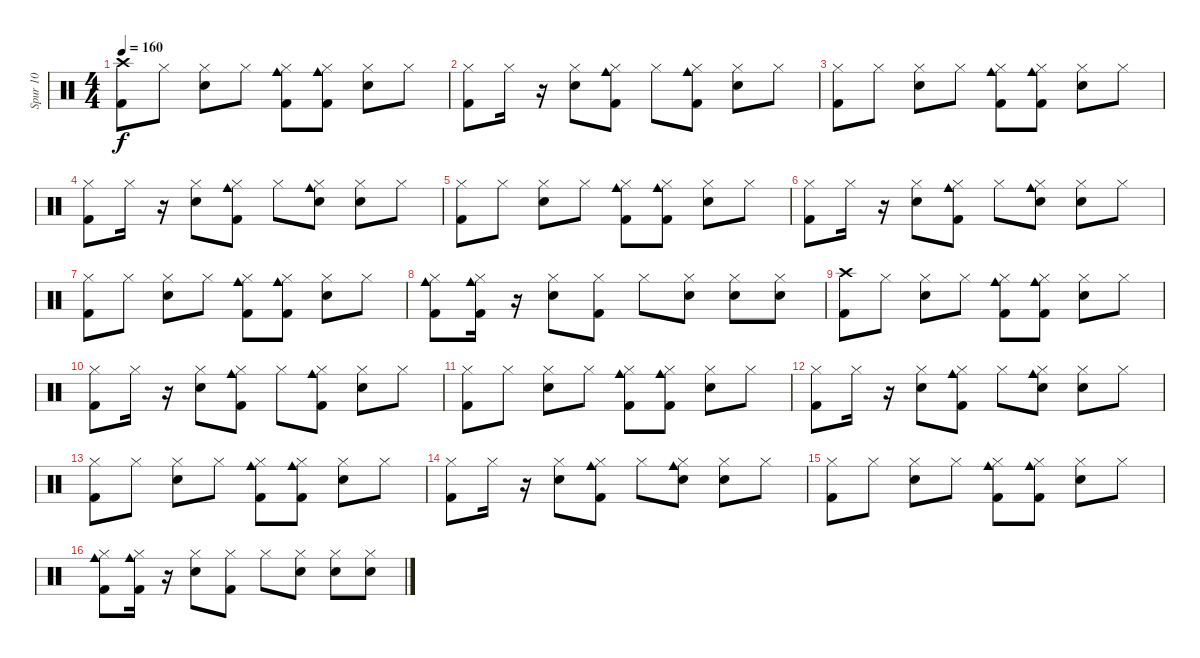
\track ("Spur 10" "Spur 10") {instrument percussion}
\staff {score}
\articulation defaults
\ts (4 4)
\tempo 160
\clef neutral
\ks c
("Crash high (hit)" "Kick (hit) 2").8{dy f} "Hi-Hat (closed)".8 ("Hi-Hat (closed)" "Snare (hit) 2").8 "Hi-Hat (closed)".8 ("Hi-Hat (closed)" "Cowbell medium (hit)" "Kick (hit) 2").8 ("Hi-Hat (closed)" "Cowbell medium (hit)" "Kick (hit) 2").8 ("Hi-Hat (closed)" "Snare (hit) 2").8 "Hi-Hat (closed)".8 |
("Hi-Hat (closed)" "Kick (hit) 2").8 "Hi-Hat (closed)".16 r.16 ("Hi-Hat (closed)" "Snare (hit) 2").8 ("Hi-Hat (closed)" "Kick (hit) 2" "Cowbell medium (hit)").8 "Hi-Hat (closed)".8 ("Hi-Hat (closed)" "Kick (hit) 2" "Cowbell medium (hit)").8 ("Hi-Hat (closed)" "Snare (hit) 2").8 "Hi-Hat (closed)".8 |
("Hi-Hat (closed)" "Kick (hit) 2").8 "Hi-Hat (closed)".8 ("Hi-Hat (closed)" "Snare (hit) 2").8 "Hi-Hat (closed)".8 ("Hi-Hat (closed)" "Cowbell medium (hit)" "Kick (hit) 2").8 ("Hi-Hat (closed)" "Cowbell medium (hit)" "Kick (hit) 2").8 ("Hi-Hat (closed)" "Snare (hit) 2").8 "Hi-Hat (closed)".8 |
("Hi-Hat (closed)" "Kick (hit) 2").8 "Hi-Hat (closed)".16 r.16 ("Hi-Hat (closed)" "Snare (hit) 2").8 ("Hi-Hat (closed)" "Kick (hit) 2" "Cowbell medium (hit)").8 "Hi-Hat (closed)".8 ("Hi-Hat (closed)" "Hand Clap (hit)" "Cowbell medium (hit)").8 ("Hi-Hat (closed)" "Snare (hit) 2").8 "Hi-Hat (closed)".8 |
("Hi-Hat (closed)" "Kick (hit) 2").8 "Hi-Hat (closed)".8 ("Hi-Hat (closed)" "Snare (hit) 2").8 "Hi-Hat (closed)".8 ("Hi-Hat (closed)" "Cowbell medium (hit)" "Kick (hit) 2").8 ("Hi-Hat (closed)" "Cowbell medium (hit)" "Kick (hit) 2").8 ("Hi-Hat (closed)" "Snare (hit) 2").8 "Hi-Hat (closed)".8 |
("Hi-Hat (closed)" "Kick (hit) 2").8 "Hi-Hat (closed)".16 r.16 ("Hi-Hat (closed)" "Snare (hit) 2").8 ("Hi-Hat (closed)" "Kick (hit) 2" "Cowbell medium (hit)").8 "Hi-Hat (closed)".8 ("Hi-Hat (closed)" "Hand Clap (hit)" "Cowbell medium (hit)").8 ("Hi-Hat (closed)" "Snare (hit) 2").8 "Hi-Hat (closed)".8 |
("Hi-Hat (closed)" "Kick (hit) 2").8 "Hi-Hat (closed)".8 ("Hi-Hat (closed)" "Snare (hit) 2").8 "Hi-Hat (closed)".8 ("Hi-Hat (closed)" "Cowbell medium (hit)" "Kick (hit) 2").8 ("Hi-Hat (closed)" "Cowbell medium (hit)" "Kick (hit) 2").8 ("Hi-Hat (closed)" "Snare (hit) 2").8 "Hi-Hat (closed)".8 |
("Cowbell medium (hit)" "Hi-Hat (closed)" "Kick (hit) 2").8 ("Cowbell medium (hit)" "Kick (hit) 2" "Hi-Hat (closed)").16 r.16 ("Hi-Hat (closed)" "Snare (hit) 2").8 ("Hi-Hat (closed)" "Kick (hit) 2").8 "Hi-Hat (closed)".8 ("Hi-Hat (closed)" "Snare (hit) 2").8 ("Hi-Hat (closed)" "Snare (hit) 2").8 ("Snare (hit) 2" "Hi-Hat (closed)").8 |
("Crash high (hit)" "Kick (hit) 2").8{volume 12} "Hi-Hat (closed)".8 ("Hi-Hat (closed)" "Snare (hit) 2").8 "Hi-Hat (closed)".8 ("Hi-Hat (closed)" "Cowbell medium (hit)" "Kick (hit) 2").8 ("Hi-Hat (closed)" "Cowbell medium (hit)" "Kick (hit) 2").8 ("Hi-Hat (closed)" "Snare (hit) 2").8 "Hi-Hat (closed)".8 |
("Hi-Hat (closed)" "Kick (hit) 2").8 "Hi-Hat (closed)".16 r.16 ("Hi-Hat (closed)" "Snare (hit) 2").8 ("Hi-Hat (closed)" "Kick (hit) 2" "Cowbell medium (hit)").8 "Hi-Hat (closed)".8 ("Hi-Hat (closed)" "Kick (hit) 2" "Cowbell medium (hit)").8 ("Hi-Hat (closed)" "Snare (hit) 2").8 "Hi-Hat (closed)".8 |
("Hi-Hat (closed)" "Kick (hit) 2").8 "Hi-Hat (closed)".8 ("Hi-Hat (closed)" "Snare (hit) 2").8 "Hi-Hat (closed)".8 ("Hi-Hat (closed)" "Cowbell medium (hit)" "Kick (hit) 2").8 ("Hi-Hat (closed)" "Cowbell medium (hit)" "Kick (hit) 2").8 ("Hi-Hat (closed)" "Snare (hit) 2").8 "Hi-Hat (closed)".8 |
("Hi-Hat (closed)" "Kick (hit) 2").8 "Hi-Hat (closed)".16 r.16 ("Hi-Hat (closed)" "Snare (hit) 2").8 ("Hi-Hat (closed)" "Kick (hit) 2" "Cowbell medium (hit)").8 "Hi-Hat (closed)".8 ("Hi-Hat (closed)" "Hand Clap (hit)" "Cowbell medium (hit)").8 ("Hi-Hat (closed)" "Snare (hit) 2").8 "Hi-Hat (closed)".8 |
("Hi-Hat (closed)" "Kick (hit) 2").8 "Hi-Hat (closed)".8 ("Hi-Hat (closed)" "Snare (hit) 2").8 "Hi-Hat (closed)".8 ("Hi-Hat (closed)" "Cowbell medium (hit)" "Kick (hit) 2").8 ("Hi-Hat (closed)" "Cowbell medium (hit)" "Kick (hit) 2").8 ("Hi-Hat (closed)" "Snare (hit) 2").8 "Hi-Hat (closed)".8 |
("Hi-Hat (closed)" "Kick (hit) 2").8 "Hi-Hat (closed)".16 r.16 ("Hi-Hat (closed)" "Snare (hit) 2").8 ("Hi-Hat (closed)" "Kick (hit) 2" "Cowbell medium (hit)").8 "Hi-Hat (closed)".8 ("Hi-Hat (closed)" "Hand Clap (hit)" "Cowbell medium (hit)").8 ("Hi-Hat (closed)" "Snare (hit) 2").8 "Hi-Hat (closed)".8 |
("Hi-Hat (closed)" "Kick (hit) 2").8 "Hi-Hat (closed)".8 ("Hi-Hat (closed)" "Snare (hit) 2").8 "Hi-Hat (closed)".8 ("Hi-Hat (closed)" "Cowbell medium (hit)" "Kick (hit) 2").8 ("Hi-Hat (closed)" "Cowbell medium (hit)" "Kick (hit) 2").8 ("Hi-Hat (closed)" "Snare (hit) 2").8 "Hi-Hat (closed)".8 |
("Cowbell medium (hit)" "Hi-Hat (closed)" "Kick (hit) 2").8 ("Cowbell medium (hit)" "Kick (hit) 2" "Hi-Hat (closed)").16 r.16 ("Hi-Hat (closed)" "Snare (hit) 2").8 ("Hi-Hat (closed)" "Kick (hit) 2").8 "Hi-Hat (closed)".8 ("Hi-Hat (closed)" "Snare (hit) 2").8 ("Hi-Hat (closed)" "Snare (hit) 2").8 ("Snare (hit) 2" "Hi-Hat (closed)").8
